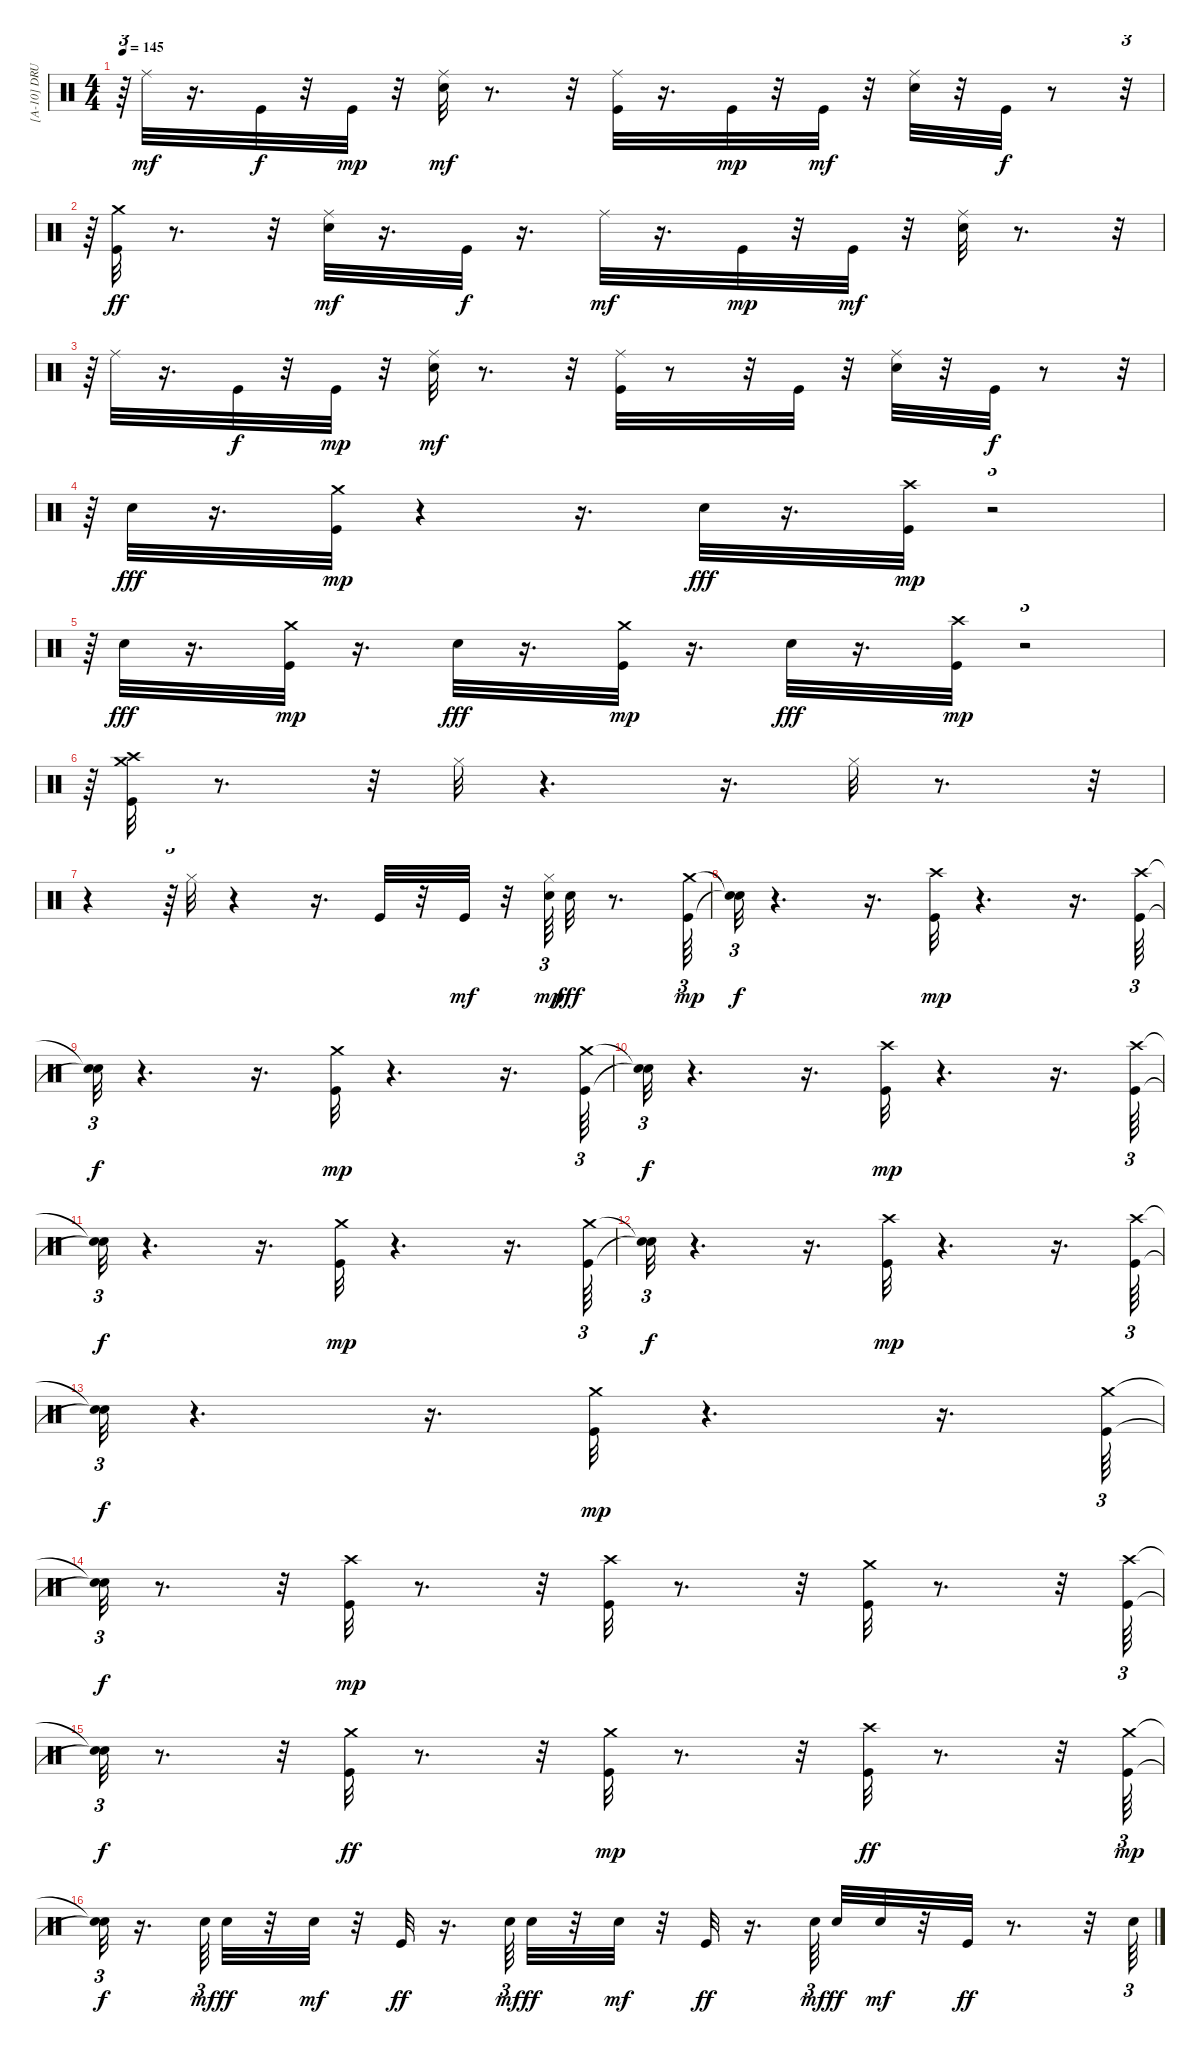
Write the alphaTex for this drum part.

\track ("[A-10] DRUMS" "[A-10] DRU") {instrument percussion}
\staff {score}
\articulation defaults
\ts (4 4)
\tempo 145
\clef neutral
\ks c
r.64{tu (3 2) dy mf} "Ride (middle)".32 r.16{d} "Kick (hit)".32{dy f} r.32 "Kick (hit)".32{dy mp} r.32 ("Snare (hit) 2" "Ride (middle)").32{dy mf} r.8{d} r.32 ("Kick (hit)" "Ride (middle)").32 r.16{d} "Kick (hit)".32{dy mp} r.32 "Kick (hit)".32{dy mf} r.32 ("Snare (hit) 2" "Ride (middle)").32 r.32 "Kick (hit)".32{dy f} r.8 r.32{tu (3 2)} |
r.64{tu (3 2)} ("Crash medium (hit)" "Kick (hit)").32{dy ff} r.8{d} r.32 ("Snare (hit) 2" "Ride (middle)").32{dy mf} r.16{d} "Kick (hit)".32{dy f} r.16{d} "Ride (middle)".32{dy mf} r.16{d} "Kick (hit)".32{dy mp} r.32 "Kick (hit)".32{dy mf} r.32 ("Snare (hit) 2" "Ride (middle)").32 r.8{d} r.32{tu (3 2)} |
r.64{tu (3 2)} "Ride (middle)".32 r.16{d} "Kick (hit)".32{dy f} r.32 "Kick (hit)".32{dy mp} r.32 ("Snare (hit) 2" "Ride (middle)").32{dy mf} r.8{d} r.32 ("Kick (hit)" "Ride (middle)").32 r.8 r.32 "Kick (hit)".32 r.32 ("Snare (hit) 2" "Ride (middle)").32 r.32 "Kick (hit)".32{dy f} r.8 r.32{tu (3 2)} |
r.64{tu (3 2)} "Snare (hit) 2".32{dy fff} r.16{d} ("Kick (hit)" "Crash medium (hit)").32{dy mp} r.4 r.16{d} "Snare (hit) 2".32{dy fff} r.16{d} ("Kick (hit)" "Crash high (hit)").32{dy mp} r.2{tu (3 2)} |
r.64{tu (3 2)} "Snare (hit) 2".32{dy fff} r.16{d} ("Kick (hit)" "Crash medium (hit)").32{dy mp} r.16{d} "Snare (hit) 2".32{dy fff} r.16{d} ("Kick (hit)" "Crash medium (hit)").32{dy mp} r.16{d} "Snare (hit) 2".32{dy fff} r.16{d} ("Kick (hit)" "Crash high (hit)").32{dy mp} r.2{tu (3 2)} |
r.64{tu (3 2)} ("Kick (hit)" "Crash medium (hit)" "Crash high (hit)").32 r.8{d} r.32 "Hi-Hat (closed)".32 r.4{d} r.16{d} "Hi-Hat (closed)".32 r.8{d} r.32{tu (3 2)} |
r.4 r.64{tu (3 2)} "Hi-Hat (closed)".32 r.4 r.16{d} "Kick (hit)".32 r.32 "Kick (hit)".32{dy mf} r.32 ("Hi-Hat (closed)" "Snare (hit) 2").64{tu (3 2) dy mp} "Snare (hit) 2".32{dy fff} r.8{d} ("Kick (hit)" "Crash medium (hit)").64{tu (3 2) dy mp} |
("Snare (hit)"{t} "Snare (hit)"{t}).32{tu (3 2) dy f} r.4{d} r.16{d} ("Kick (hit)" "Crash high (hit)").32{dy mp} r.4{d} r.16{d} ("Kick (hit)" "Crash high (hit)").64{tu (3 2)} |
("Snare (hit)"{t} "Snare (hit)"{t}).32{tu (3 2) dy f} r.4{d} r.16{d} ("Kick (hit)" "Crash medium (hit)").32{dy mp} r.4{d} r.16{d} ("Kick (hit)" "Crash medium (hit)").64{tu (3 2)} |
("Snare (hit)"{t} "Snare (hit)"{t}).32{tu (3 2) dy f} r.4{d} r.16{d} ("Kick (hit)" "Crash high (hit)").32{dy mp} r.4{d} r.16{d} ("Kick (hit)" "Crash high (hit)").64{tu (3 2)} |
("Snare (hit)"{t} "Snare (hit)"{t}).32{tu (3 2) dy f} r.4{d} r.16{d} ("Kick (hit)" "Crash medium (hit)").32{dy mp} r.4{d} r.16{d} ("Kick (hit)" "Crash medium (hit)").64{tu (3 2)} |
("Snare (hit)"{t} "Snare (hit)"{t}).32{tu (3 2) dy f} r.4{d} r.16{d} ("Kick (hit)" "Crash high (hit)").32{dy mp} r.4{d} r.16{d} ("Kick (hit)" "Crash high (hit)").64{tu (3 2)} |
("Snare (hit)"{t} "Snare (hit)"{t}).32{tu (3 2) dy f} r.4{d} r.16{d} ("Kick (hit)" "Crash medium (hit)").32{dy mp} r.4{d} r.16{d} ("Kick (hit)" "Crash medium (hit)").64{tu (3 2)} |
("Snare (hit)"{t} "Snare (hit)"{t}).32{tu (3 2) dy f} r.8{d} r.32 ("Kick (hit)" "Crash high (hit)").32{dy mp} r.8{d} r.32 ("Kick (hit)" "Crash high (hit)").32 r.8{d} r.32 ("Kick (hit)" "Crash medium (hit)").32 r.8{d} r.32 ("Kick (hit)" "Crash high (hit)").64{tu (3 2)} |
("Snare (hit)"{t} "Snare (hit)"{t}).32{tu (3 2) dy f} r.8{d} r.32 ("Crash medium (hit)" "Kick (hit)").32{dy ff} r.8{d} r.32 ("Kick (hit)" "Crash medium (hit)").32{dy mp} r.8{d} r.32 ("Crash high (hit)" "Kick (hit)").32{dy ff} r.8{d} r.32 ("Kick (hit)" "Crash medium (hit)").64{tu (3 2) dy mp} |
("Snare (hit)"{t} "Snare (hit)"{t}).32{tu (3 2) dy f} r.16{d} "Snare (hit) 2".64{tu (3 2) dy mf} "Snare (hit) 2".32{dy ff} r.32 "Snare (hit) 2".32{dy mf} r.32 "Kick (hit)".32{dy ff} r.16{d} "Snare (hit) 2".64{tu (3 2) dy mf} "Snare (hit) 2".32{dy ff} r.32 "Snare (hit) 2".32{dy mf} r.32 "Kick (hit)".32{dy ff} r.16{d} "Snare (hit) 2".64{tu (3 2) dy mf beam splitsecondary} "Snare (hit) 2".32{dy ff} "Snare (hit) 2".32{dy mf} r.32 "Kick (hit)".32{dy ff} r.8{d} r.32 "Snare (hit) 2".64{tu (3 2)}
